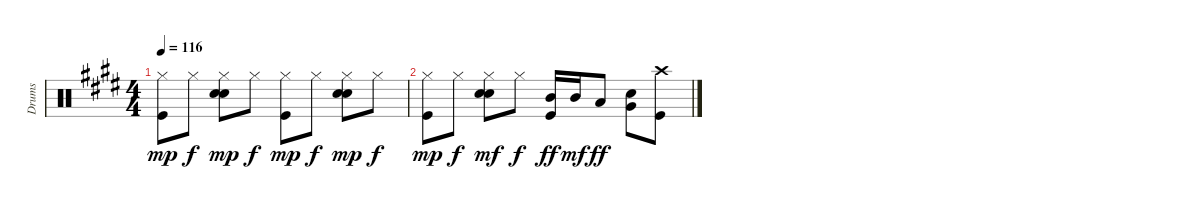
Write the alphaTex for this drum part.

\track ("Drums" "Drums") {instrument percussion}
\staff {score}
\articulation defaults
\ts (4 4)
\tempo 116
\clef neutral
\ks e
("Kick (hit)" "Hi-Hat (closed)").8{dy mp} "Hi-Hat (closed)".8{dy f} ("Hand Clap (hit)" "Electric Snare (hit)" "Hi-Hat (closed)").8{dy mp} "Hi-Hat (closed)".8{dy f} ("Kick (hit)" "Hi-Hat (closed)").8{dy mp} "Hi-Hat (closed)".8{dy f} ("Hand Clap (hit)" "Electric Snare (hit)" "Hi-Hat (closed)").8{dy mp} "Hi-Hat (closed)".8{dy f} |
("Kick (hit)" "Hi-Hat (closed)").8{dy mp} "Hi-Hat (closed)".8{dy f} ("Hand Clap (hit)" "Electric Snare (hit)" "Hi-Hat (closed)").8{dy mf} "Hi-Hat (closed)".8{dy f} ("Kick (hit)" "Mid Tom (hit)").16{dy ff} "Mid Tom (hit)".16{dy mf} "Low Tom (hit)".8{dy ff} ("Hand Clap (hit)" "Very Low Tom (hit)").8 ("Kick (hit)" "Crash high (hit)").8
